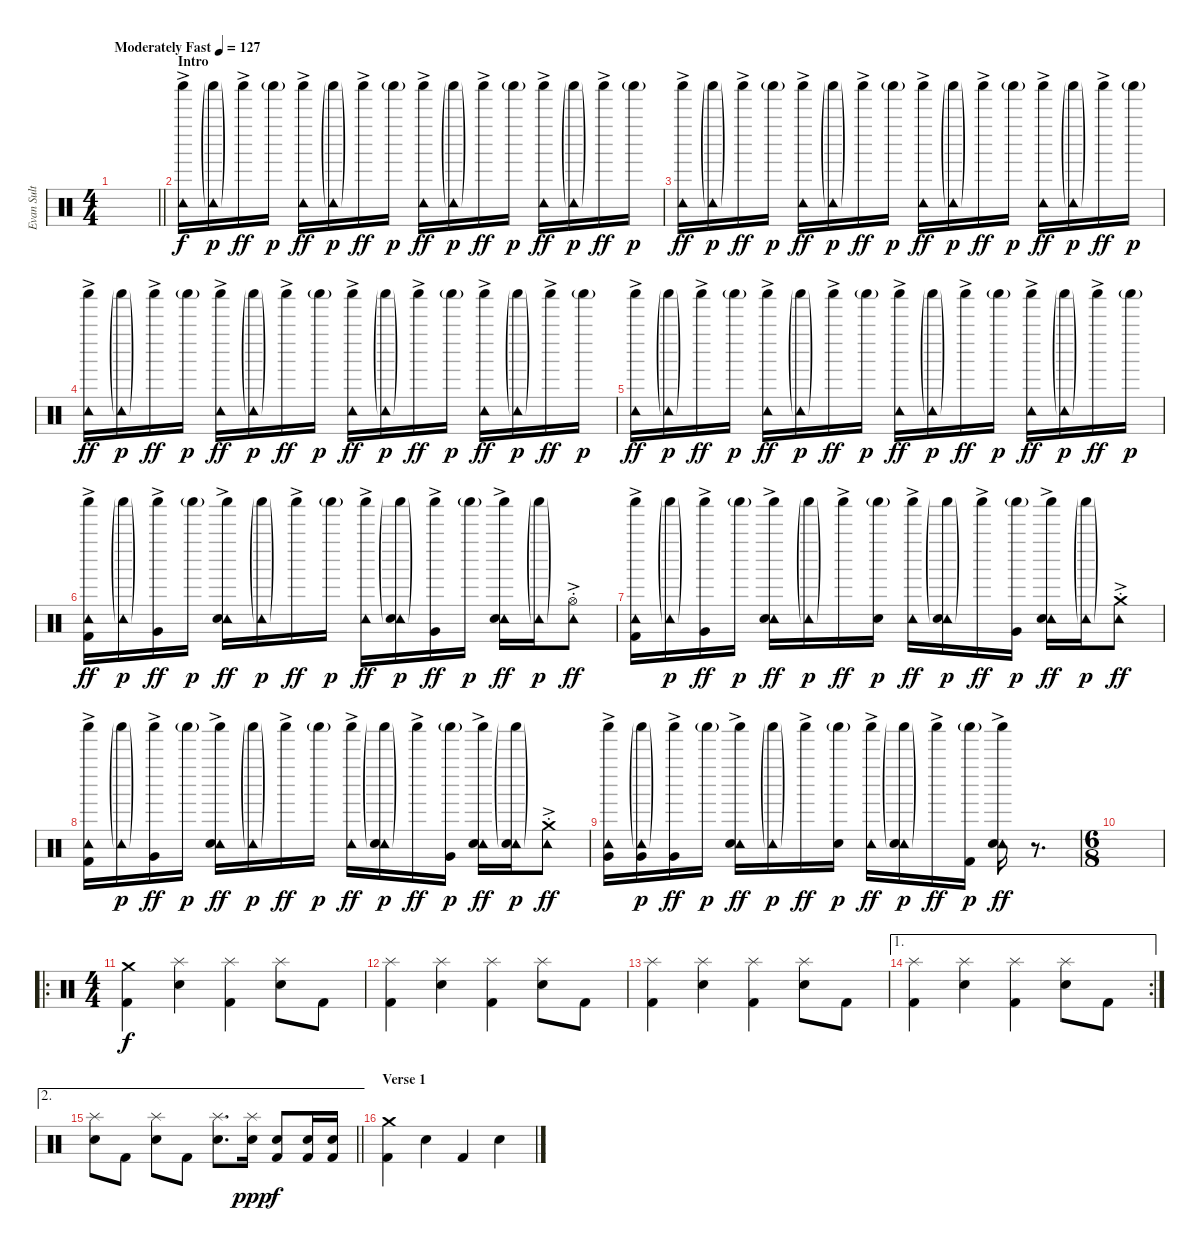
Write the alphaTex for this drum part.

\track ("Evan Sult" "Evan Sult") {instrument percussion}
\staff {score}
\articulation defaults
\ts (4 4)
\tempo (127 "Moderately Fast")
\clef neutral
\barLineRight lightlight
\ks c
|
\section ("" "Intro")
("Tambourine (hit)"{ac} "Shaker (hit)"{ac}).16 ("Tambourine (hit)"{g} "Shaker (hit)"{g}).16{dy p} "Shaker (hit)"{ac}.16{dy ff} "Shaker (hit)"{g}.16{dy p} ("Tambourine (hit)"{ac} "Shaker (hit)"{ac}).16{dy ff} ("Tambourine (hit)"{g} "Shaker (hit)"{g}).16{dy p} "Shaker (hit)"{ac}.16{dy ff} "Shaker (hit)"{g}.16{dy p} ("Tambourine (hit)"{ac} "Shaker (hit)"{ac}).16{dy ff} ("Tambourine (hit)"{g} "Shaker (hit)"{g}).16{dy p} "Shaker (hit)"{ac}.16{dy ff} "Shaker (hit)"{g}.16{dy p} ("Tambourine (hit)"{ac} "Shaker (hit)"{ac}).16{dy ff} ("Tambourine (hit)"{g} "Shaker (hit)"{g}).16{dy p} "Shaker (hit)"{ac}.16{dy ff} "Shaker (hit)"{g}.16{dy p} |
("Tambourine (hit)"{ac} "Shaker (hit)"{ac}).16{dy ff} ("Tambourine (hit)"{g} "Shaker (hit)"{g}).16{dy p} "Shaker (hit)"{ac}.16{dy ff} "Shaker (hit)"{g}.16{dy p} ("Tambourine (hit)"{ac} "Shaker (hit)"{ac}).16{dy ff} ("Tambourine (hit)"{g} "Shaker (hit)"{g}).16{dy p} "Shaker (hit)"{ac}.16{dy ff} "Shaker (hit)"{g}.16{dy p} ("Tambourine (hit)"{ac} "Shaker (hit)"{ac}).16{dy ff} ("Tambourine (hit)"{g} "Shaker (hit)"{g}).16{dy p} "Shaker (hit)"{ac}.16{dy ff} "Shaker (hit)"{g}.16{dy p} ("Tambourine (hit)"{ac} "Shaker (hit)"{ac}).16{dy ff} ("Tambourine (hit)"{g} "Shaker (hit)"{g}).16{dy p} "Shaker (hit)"{ac}.16{dy ff} "Shaker (hit)"{g}.16{dy p} |
("Tambourine (hit)"{ac} "Shaker (hit)"{ac}).16{dy ff} ("Tambourine (hit)"{g} "Shaker (hit)"{g}).16{dy p} "Shaker (hit)"{ac}.16{dy ff} "Shaker (hit)"{g}.16{dy p} ("Tambourine (hit)"{ac} "Shaker (hit)"{ac}).16{dy ff} ("Tambourine (hit)"{g} "Shaker (hit)"{g}).16{dy p} "Shaker (hit)"{ac}.16{dy ff} "Shaker (hit)"{g}.16{dy p} ("Tambourine (hit)"{ac} "Shaker (hit)"{ac}).16{dy ff} ("Tambourine (hit)"{g} "Shaker (hit)"{g}).16{dy p} "Shaker (hit)"{ac}.16{dy ff} "Shaker (hit)"{g}.16{dy p} ("Tambourine (hit)"{ac} "Shaker (hit)"{ac}).16{dy ff} ("Tambourine (hit)"{g} "Shaker (hit)"{g}).16{dy p} "Shaker (hit)"{ac}.16{dy ff} "Shaker (hit)"{g}.16{dy p} |
("Tambourine (hit)"{ac} "Shaker (hit)"{ac}).16{dy ff} ("Tambourine (hit)"{g} "Shaker (hit)"{g}).16{dy p} "Shaker (hit)"{ac}.16{dy ff} "Shaker (hit)"{g}.16{dy p} ("Tambourine (hit)"{ac} "Shaker (hit)"{ac}).16{dy ff} ("Tambourine (hit)"{g} "Shaker (hit)"{g}).16{dy p} "Shaker (hit)"{ac}.16{dy ff} "Shaker (hit)"{g}.16{dy p} ("Tambourine (hit)"{ac} "Shaker (hit)"{ac}).16{dy ff} ("Tambourine (hit)"{g} "Shaker (hit)"{g}).16{dy p} "Shaker (hit)"{ac}.16{dy ff} "Shaker (hit)"{g}.16{dy p} ("Tambourine (hit)"{ac} "Shaker (hit)"{ac}).16{dy ff} ("Tambourine (hit)"{g} "Shaker (hit)"{g}).16{dy p} "Shaker (hit)"{ac}.16{dy ff} "Shaker (hit)"{g}.16{dy p} |
("Tambourine (hit)"{ac} "Shaker (hit)"{ac} "Kick (hit) 2").16{dy ff} ("Tambourine (hit)"{g} "Shaker (hit)"{g}).16{dy p} ("Shaker (hit)"{ac} "Very Low Tom (hit)").16{dy ff} "Shaker (hit)"{g}.16{dy p} ("Tambourine (hit)"{ac} "Shaker (hit)"{ac} "Electric Snare (hit)").16{dy ff} ("Tambourine (hit)"{g} "Shaker (hit)"{g}).16{dy p} "Shaker (hit)"{ac}.16{dy ff} "Shaker (hit)"{g}.16{dy p} ("Tambourine (hit)"{ac} "Shaker (hit)"{ac}).16{dy ff} ("Tambourine (hit)"{g} "Shaker (hit)"{g} "Electric Snare (hit)").16{dy p} ("Shaker (hit)"{ac} "Very Low Tom (hit)").16{dy ff} "Shaker (hit)"{g}.16{dy p} ("Tambourine (hit)"{ac} "Shaker (hit)"{ac} "Electric Snare (hit)").16{dy ff} ("Tambourine (hit)"{g} "Shaker (hit)"{g}).16{dy p} ("Tambourine (hit)"{ac st} "Hi-Hat (open)"{ac}).8{dy ff} |
("Tambourine (hit)" "Shaker (hit)"{ac} "Kick (hit) 2").16 ("Tambourine (hit)"{g} "Shaker (hit)"{g}).16{dy p} ("Shaker (hit)"{ac} "Very Low Tom (hit)").16{dy ff} "Shaker (hit)"{g}.16{dy p} ("Tambourine (hit)" "Shaker (hit)"{ac} "Electric Snare (hit)").16{dy ff} ("Tambourine (hit)"{g} "Shaker (hit)"{g}).16{dy p} "Shaker (hit)"{ac}.16{dy ff} ("Shaker (hit)"{g} "Electric Snare (hit)").16{dy p} ("Tambourine (hit)" "Shaker (hit)"{ac}).16{dy ff} ("Tambourine (hit)"{g} "Shaker (hit)"{g} "Electric Snare (hit)").16{dy p} "Shaker (hit)"{ac}.16{dy ff} ("Shaker (hit)"{g} "Very Low Tom (hit)").16{dy p} ("Tambourine (hit)" "Shaker (hit)"{ac} "Electric Snare (hit)").16{dy ff} ("Tambourine (hit)"{g} "Shaker (hit)"{g}).16{dy p} ("Tambourine (hit)"{ac st} "Crash medium (hit)"{ac}).8{dy ff} |
("Tambourine (hit)"{ac} "Shaker (hit)"{ac} "Kick (hit) 2").16 ("Tambourine (hit)"{g} "Shaker (hit)"{g}).16{dy p} ("Shaker (hit)"{ac} "Very Low Tom (hit)").16{dy ff} "Shaker (hit)"{g}.16{dy p} ("Tambourine (hit)"{ac} "Shaker (hit)"{ac} "Electric Snare (hit)").16{dy ff} ("Tambourine (hit)"{g} "Shaker (hit)"{g}).16{dy p} "Shaker (hit)"{ac}.16{dy ff} "Shaker (hit)"{g}.16{dy p} ("Tambourine (hit)"{ac} "Shaker (hit)"{ac}).16{dy ff} ("Tambourine (hit)"{g} "Shaker (hit)"{g} "Electric Snare (hit)").16{dy p} "Shaker (hit)"{ac}.16{dy ff} ("Shaker (hit)"{g} "Very Low Tom (hit)").16{dy p} ("Tambourine (hit)"{ac} "Shaker (hit)"{ac} "Electric Snare (hit)").16{dy ff} ("Tambourine (hit)"{g} "Shaker (hit)"{g} "Electric Snare (hit)").16{dy p} ("Tambourine (hit)"{ac st} "Crash medium (hit)"{ac}).8{dy ff} |
("Tambourine (hit)" "Shaker (hit)"{ac} "Very Low Tom (hit)").16 ("Tambourine (hit)"{g} "Shaker (hit)"{g} "Very Low Tom (hit)").16{dy p} ("Shaker (hit)"{ac} "Very Low Tom (hit)").16{dy ff} "Shaker (hit)"{g}.16{dy p} ("Tambourine (hit)" "Shaker (hit)"{ac} "Electric Snare (hit)").16{dy ff} ("Tambourine (hit)"{g} "Shaker (hit)"{g}).16{dy p} "Shaker (hit)"{ac}.16{dy ff} ("Shaker (hit)"{g} "Electric Snare (hit)").16{dy p} ("Tambourine (hit)" "Shaker (hit)"{ac}).16{dy ff} ("Tambourine (hit)"{g} "Shaker (hit)"{g} "Electric Snare (hit)").16{dy p} "Shaker (hit)"{ac}.16{dy ff} ("Shaker (hit)"{g} "Kick (hit) 2").16{dy p} ("Tambourine (hit)" "Shaker (hit)"{ac} "Electric Snare (hit)").16{dy ff} r.8{d} |
\ts (6 8)
|
\ro
\ts (4 4)
("Crash medium (hit)" "Kick (hit) 2").4{dy f} ("Electric Snare (hit)" "Splash (hit)").4 ("Kick (hit) 2" "Splash (hit)").4 ("Electric Snare (hit)" "Splash (hit)").8 "Kick (hit) 2".8 |
("Kick (hit) 2" "Splash (hit)").4 ("Electric Snare (hit)" "Splash (hit)").4 ("Kick (hit) 2" "Splash (hit)").4 ("Electric Snare (hit)" "Splash (hit)").8 "Kick (hit) 2".8 |
("Kick (hit) 2" "Splash (hit)").4 ("Electric Snare (hit)" "Splash (hit)").4 ("Kick (hit) 2" "Splash (hit)").4 ("Electric Snare (hit)" "Splash (hit)").8 "Kick (hit) 2".8 |
\ae 1
\rc 2
("Kick (hit) 2" "Splash (hit)").4 ("Electric Snare (hit)" "Splash (hit)").4 ("Kick (hit) 2" "Splash (hit)").4 ("Electric Snare (hit)" "Splash (hit)").8 "Kick (hit) 2".8 |
\ae 2
\barLineRight lightlight
("Electric Snare (hit)" "Splash (hit)").8 "Kick (hit) 2".8 ("Electric Snare (hit)" "Splash (hit)").8 "Kick (hit) 2".8 ("Electric Snare (hit)" "Splash (hit)").8{d} ("Snare (hit) 2" "Splash (hit)").16{dy ppp} ("Electric Snare (hit)" "Kick (hit) 2").8{dy f} ("Electric Snare (hit)" "Kick (hit) 2").16 ("Electric Snare (hit)" "Kick (hit) 2").16 |
\section ("" "Verse 1")
("Crash medium (hit)" "Kick (hit) 2").4 "Electric Snare (hit)".4 "Kick (hit) 2".4 "Electric Snare (hit)".4
